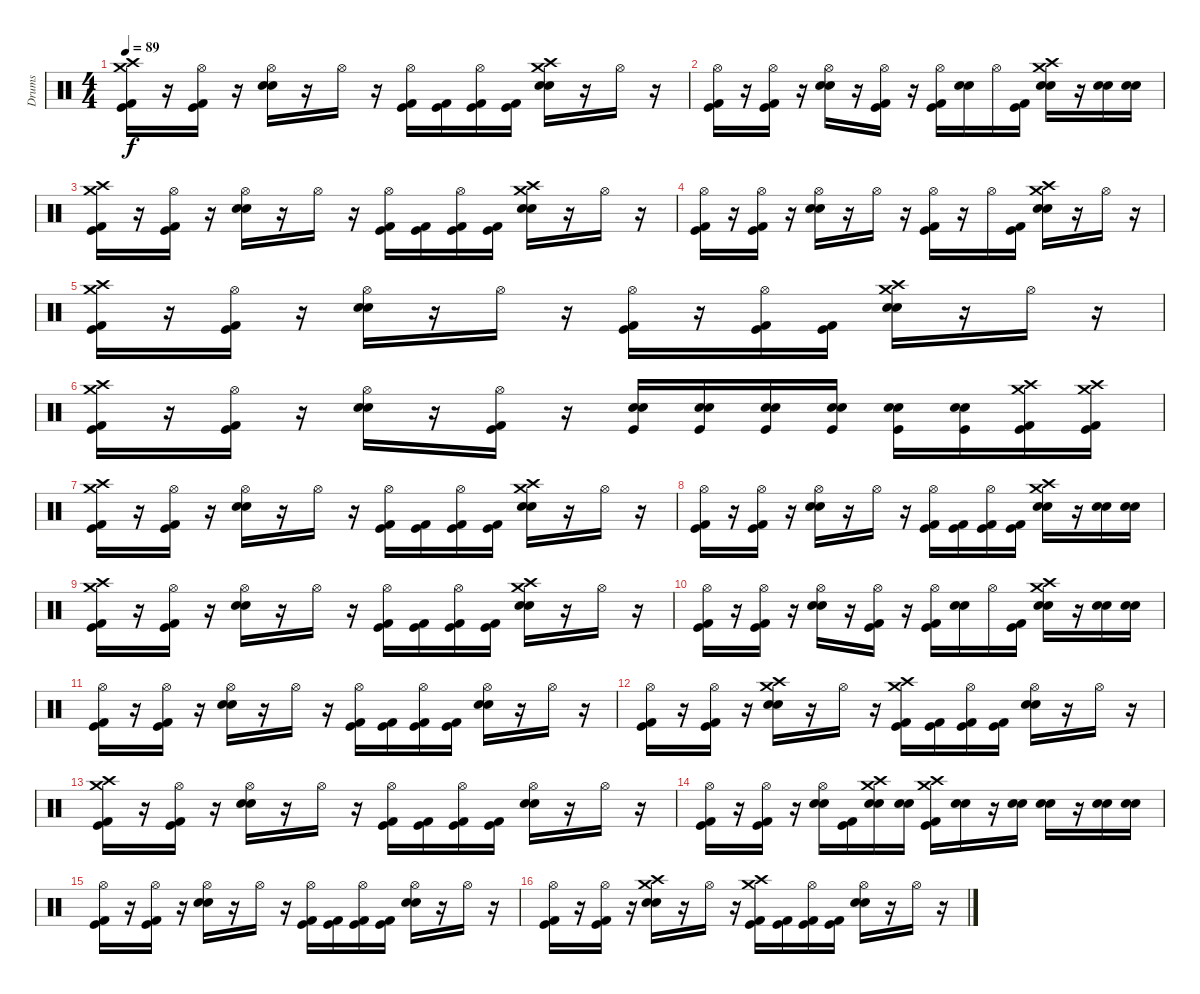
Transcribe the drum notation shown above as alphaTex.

\track ("Drums" "Drums") {instrument percussion}
\staff {score}
\articulation defaults
\ts (4 4)
\tempo 89
\clef neutral
\ks c
("Crash medium (hit)" "Crash high (hit)" "Kick (hit) 2" "Kick (hit)").16{dy f} r.16 ("Hi-Hat (open)" "Kick (hit) 2" "Kick (hit)").16 r.16 ("Hi-Hat (open)" "Electric Snare (hit)" "Snare (hit) 2").16 r.16 "Hi-Hat (open)".16 r.16 ("Hi-Hat (open)" "Kick (hit) 2" "Kick (hit)").16 ("Kick (hit) 2" "Kick (hit)").16 ("Hi-Hat (open)" "Kick (hit) 2" "Kick (hit)").16 ("Kick (hit) 2" "Kick (hit)").16 ("Crash medium (hit)" "Crash high (hit)" "Electric Snare (hit)" "Snare (hit) 2").16 r.16 "Hi-Hat (open)".16 r.16 |
("Hi-Hat (open)" "Kick (hit) 2" "Kick (hit)").16 r.16 ("Hi-Hat (open)" "Kick (hit) 2" "Kick (hit)").16 r.16 ("Hi-Hat (open)" "Electric Snare (hit)" "Snare (hit) 2").16 r.16 ("Kick (hit) 2" "Kick (hit)" "Hi-Hat (open)").16 r.16 ("Hi-Hat (open)" "Kick (hit) 2" "Kick (hit)").16 ("Electric Snare (hit)" "Snare (hit) 2").16 "Hi-Hat (open)".16 ("Kick (hit) 2" "Kick (hit)").16 ("Crash medium (hit)" "Crash high (hit)" "Electric Snare (hit)" "Snare (hit) 2").16 r.16 ("Snare (hit) 2" "Electric Snare (hit)").16 ("Electric Snare (hit)" "Snare (hit) 2").16 |
("Crash medium (hit)" "Crash high (hit)" "Kick (hit) 2" "Kick (hit)").16 r.16 ("Hi-Hat (open)" "Kick (hit) 2" "Kick (hit)").16 r.16 ("Hi-Hat (open)" "Electric Snare (hit)" "Snare (hit) 2").16 r.16 "Hi-Hat (open)".16 r.16 ("Hi-Hat (open)" "Kick (hit) 2" "Kick (hit)").16 ("Kick (hit) 2" "Kick (hit)").16 ("Hi-Hat (open)" "Kick (hit) 2" "Kick (hit)").16 ("Kick (hit) 2" "Kick (hit)").16 ("Crash medium (hit)" "Crash high (hit)" "Electric Snare (hit)" "Snare (hit) 2").16 r.16 "Hi-Hat (open)".16 r.16 |
("Hi-Hat (open)" "Kick (hit) 2" "Kick (hit)").16 r.16 ("Hi-Hat (open)" "Kick (hit) 2" "Kick (hit)").16 r.16 ("Hi-Hat (open)" "Electric Snare (hit)" "Snare (hit) 2").16 r.16 "Hi-Hat (open)".16 r.16 ("Hi-Hat (open)" "Kick (hit) 2" "Kick (hit)").16 r.16 "Hi-Hat (open)".16 ("Kick (hit) 2" "Kick (hit)").16 ("Crash medium (hit)" "Crash high (hit)" "Electric Snare (hit)" "Snare (hit) 2").16 r.16 "Hi-Hat (open)".16 r.16 |
("Crash medium (hit)" "Crash high (hit)" "Kick (hit) 2" "Kick (hit)").16 r.16 ("Hi-Hat (open)" "Kick (hit) 2" "Kick (hit)").16 r.16 ("Hi-Hat (open)" "Electric Snare (hit)" "Snare (hit) 2").16 r.16 "Hi-Hat (open)".16 r.16 ("Hi-Hat (open)" "Kick (hit) 2" "Kick (hit)").16 r.16 ("Hi-Hat (open)" "Kick (hit) 2" "Kick (hit)").16 ("Kick (hit) 2" "Kick (hit)").16 ("Crash medium (hit)" "Crash high (hit)" "Electric Snare (hit)" "Snare (hit) 2").16 r.16 "Hi-Hat (open)".16 r.16 |
("Crash medium (hit)" "Crash high (hit)" "Kick (hit) 2" "Kick (hit)").16 r.16 ("Hi-Hat (open)" "Kick (hit) 2" "Kick (hit)").16 r.16 ("Hi-Hat (open)" "Electric Snare (hit)" "Snare (hit) 2").16 r.16 ("Kick (hit) 2" "Kick (hit)" "Hi-Hat (open)").16 r.16 ("Electric Snare (hit)" "Snare (hit) 2" "Kick (hit)").16 ("Electric Snare (hit)" "Snare (hit) 2" "Kick (hit)").16 ("Electric Snare (hit)" "Snare (hit) 2" "Kick (hit)").16 ("Electric Snare (hit)" "Snare (hit) 2" "Kick (hit)").16 ("Kick (hit)" "Electric Snare (hit)" "Snare (hit) 2").16 ("Kick (hit)" "Electric Snare (hit)" "Snare (hit) 2").16 ("Crash high (hit)" "Crash medium (hit)" "Kick (hit) 2" "Kick (hit)").16 ("Kick (hit) 2" "Kick (hit)" "Crash high (hit)" "Crash medium (hit)").16 |
("Crash medium (hit)" "Crash high (hit)" "Kick (hit) 2" "Kick (hit)").16 r.16 ("Hi-Hat (open)" "Kick (hit) 2" "Kick (hit)").16 r.16 ("Hi-Hat (open)" "Electric Snare (hit)" "Snare (hit) 2").16 r.16 "Hi-Hat (open)".16 r.16 ("Hi-Hat (open)" "Kick (hit) 2" "Kick (hit)").16 ("Kick (hit) 2" "Kick (hit)").16 ("Hi-Hat (open)" "Kick (hit) 2" "Kick (hit)").16 ("Kick (hit) 2" "Kick (hit)").16 ("Crash medium (hit)" "Crash high (hit)" "Electric Snare (hit)" "Snare (hit) 2").16 r.16 "Hi-Hat (open)".16 r.16 |
("Hi-Hat (open)" "Kick (hit) 2" "Kick (hit)").16 r.16 ("Hi-Hat (open)" "Kick (hit) 2" "Kick (hit)").16 r.16 ("Hi-Hat (open)" "Electric Snare (hit)" "Snare (hit) 2").16 r.16 "Hi-Hat (open)".16 r.16 ("Hi-Hat (open)" "Kick (hit) 2" "Kick (hit)").16 ("Kick (hit) 2" "Kick (hit)").16 ("Hi-Hat (open)" "Kick (hit) 2" "Kick (hit)").16 ("Kick (hit) 2" "Kick (hit)").16 ("Crash medium (hit)" "Crash high (hit)" "Electric Snare (hit)" "Snare (hit) 2").16 r.16 ("Electric Snare (hit)" "Snare (hit) 2").16 ("Electric Snare (hit)" "Snare (hit) 2").16 |
("Crash medium (hit)" "Crash high (hit)" "Kick (hit) 2" "Kick (hit)").16 r.16 ("Hi-Hat (open)" "Kick (hit) 2" "Kick (hit)").16 r.16 ("Hi-Hat (open)" "Electric Snare (hit)" "Snare (hit) 2").16 r.16 "Hi-Hat (open)".16 r.16 ("Hi-Hat (open)" "Kick (hit) 2" "Kick (hit)").16 ("Kick (hit) 2" "Kick (hit)").16 ("Hi-Hat (open)" "Kick (hit) 2" "Kick (hit)").16 ("Kick (hit) 2" "Kick (hit)").16 ("Crash medium (hit)" "Crash high (hit)" "Electric Snare (hit)" "Snare (hit) 2").16 r.16 "Hi-Hat (open)".16 r.16 |
("Hi-Hat (open)" "Kick (hit) 2" "Kick (hit)").16 r.16 ("Hi-Hat (open)" "Kick (hit) 2" "Kick (hit)").16 r.16 ("Hi-Hat (open)" "Electric Snare (hit)" "Snare (hit) 2").16 r.16 ("Kick (hit) 2" "Kick (hit)" "Hi-Hat (open)").16 r.16 ("Hi-Hat (open)" "Kick (hit) 2" "Kick (hit)").16 ("Electric Snare (hit)" "Snare (hit) 2").16 "Hi-Hat (open)".16 ("Kick (hit) 2" "Kick (hit)").16 ("Crash medium (hit)" "Crash high (hit)" "Electric Snare (hit)" "Snare (hit) 2").16 r.16 ("Snare (hit) 2" "Electric Snare (hit)").16 ("Electric Snare (hit)" "Snare (hit) 2").16 |
("Hi-Hat (open)" "Kick (hit) 2" "Kick (hit)").16 r.16 ("Hi-Hat (open)" "Kick (hit) 2" "Kick (hit)").16 r.16 ("Hi-Hat (open)" "Electric Snare (hit)" "Snare (hit) 2").16 r.16 "Hi-Hat (open)".16 r.16 ("Hi-Hat (open)" "Kick (hit) 2" "Kick (hit)").16 ("Kick (hit) 2" "Kick (hit)").16 ("Hi-Hat (open)" "Kick (hit) 2" "Kick (hit)").16 ("Kick (hit) 2" "Kick (hit)").16 ("Hi-Hat (open)" "Electric Snare (hit)" "Snare (hit) 2").16 r.16 "Hi-Hat (open)".16 r.16 |
("Hi-Hat (open)" "Kick (hit) 2" "Kick (hit)").16 r.16 ("Hi-Hat (open)" "Kick (hit) 2" "Kick (hit)").16 r.16 ("Crash medium (hit)" "Crash high (hit)" "Electric Snare (hit)" "Snare (hit) 2").16 r.16 "Hi-Hat (open)".16 r.16 ("Crash medium (hit)" "Crash high (hit)" "Kick (hit) 2" "Kick (hit)").16 ("Kick (hit) 2" "Kick (hit)").16 ("Hi-Hat (open)" "Kick (hit) 2" "Kick (hit)").16 ("Kick (hit) 2" "Kick (hit)").16 ("Hi-Hat (open)" "Electric Snare (hit)" "Snare (hit) 2").16 r.16 "Hi-Hat (open)".16 r.16 |
("Crash medium (hit)" "Crash high (hit)" "Kick (hit) 2" "Kick (hit)").16 r.16 ("Hi-Hat (open)" "Kick (hit) 2" "Kick (hit)").16 r.16 ("Hi-Hat (open)" "Electric Snare (hit)" "Snare (hit) 2").16 r.16 "Hi-Hat (open)".16 r.16 ("Hi-Hat (open)" "Kick (hit) 2" "Kick (hit)").16 ("Kick (hit) 2" "Kick (hit)").16 ("Hi-Hat (open)" "Kick (hit) 2" "Kick (hit)").16 ("Kick (hit) 2" "Kick (hit)").16 ("Hi-Hat (open)" "Electric Snare (hit)" "Snare (hit) 2").16 r.16 "Hi-Hat (open)".16 r.16 |
("Hi-Hat (open)" "Kick (hit) 2" "Kick (hit)").16 r.16 ("Hi-Hat (open)" "Kick (hit) 2" "Kick (hit)").16 r.16 ("Hi-Hat (open)" "Electric Snare (hit)" "Snare (hit) 2").16 ("Kick (hit) 2" "Kick (hit)").16{volume 16 balance 8} ("Crash medium (hit)" "Crash high (hit)" "Electric Snare (hit)" "Snare (hit) 2").16 ("Electric Snare (hit)" "Snare (hit) 2").16 ("Crash medium (hit)" "Crash high (hit)" "Kick (hit) 2" "Kick (hit)").16 ("Electric Snare (hit)" "Snare (hit) 2").16 r.16 ("Electric Snare (hit)" "Snare (hit) 2").16 ("Electric Snare (hit)" "Snare (hit) 2").16 r.16 ("Electric Snare (hit)" "Snare (hit) 2").16 ("Electric Snare (hit)" "Snare (hit) 2").16 |
("Hi-Hat (open)" "Kick (hit) 2" "Kick (hit)").16 r.16 ("Hi-Hat (open)" "Kick (hit) 2" "Kick (hit)").16 r.16 ("Hi-Hat (open)" "Electric Snare (hit)" "Snare (hit) 2").16 r.16 "Hi-Hat (open)".16 r.16 ("Hi-Hat (open)" "Kick (hit) 2" "Kick (hit)").16 ("Kick (hit) 2" "Kick (hit)").16 ("Hi-Hat (open)" "Kick (hit) 2" "Kick (hit)").16 ("Kick (hit) 2" "Kick (hit)").16 ("Hi-Hat (open)" "Electric Snare (hit)" "Snare (hit) 2").16 r.16 "Hi-Hat (open)".16 r.16 |
("Hi-Hat (open)" "Kick (hit) 2" "Kick (hit)").16 r.16 ("Hi-Hat (open)" "Kick (hit) 2" "Kick (hit)").16 r.16 ("Crash medium (hit)" "Crash high (hit)" "Electric Snare (hit)" "Snare (hit) 2").16 r.16 "Hi-Hat (open)".16 r.16 ("Crash medium (hit)" "Crash high (hit)" "Kick (hit) 2" "Kick (hit)").16 ("Kick (hit) 2" "Kick (hit)").16 ("Hi-Hat (open)" "Kick (hit) 2" "Kick (hit)").16 ("Kick (hit) 2" "Kick (hit)").16 ("Hi-Hat (open)" "Electric Snare (hit)" "Snare (hit) 2").16 r.16 "Hi-Hat (open)".16 r.16
